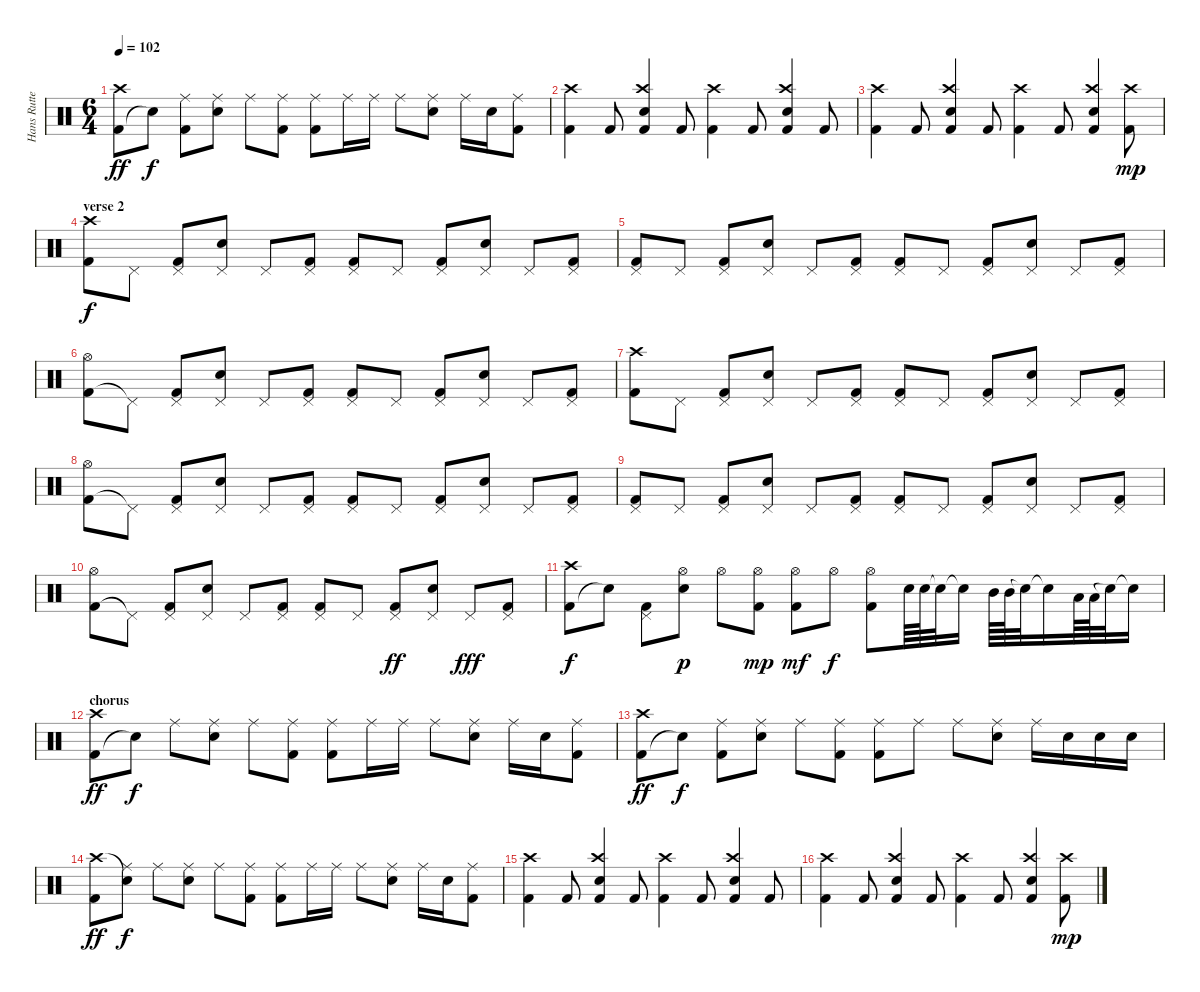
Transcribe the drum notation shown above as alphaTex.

\track ("Hans Rutten" "Hans Rutte") {instrument percussion}
\staff {score}
\articulation defaults
\ts (6 4)
\tempo 102
\clef neutral
\ks c
("Kick (hit) 2" "Crash high (hit)").8{dy ff} "Snare (hit)"{t}.8{dy f} ("Kick (hit) 2" "Ride (middle)").8 ("Ride (middle)" "Snare (hit) 2").8 "Ride (middle)".8 ("Kick (hit) 2" "Ride (middle)").8 ("Kick (hit) 2" "Ride (middle)").8 "Ride (middle)".16 "Ride (middle)".16 "Ride (middle)".8 ("Ride (middle)" "Snare (hit) 2").8 "Ride (middle)".16 "Snare (hit) 2".16 ("Kick (hit) 2" "Ride (middle)").8 |
("Kick (hit) 2" "Crash high (hit)").4 "Kick (hit) 2".8 ("Kick (hit) 2" "Crash high (hit)" "Snare (hit) 2").4 "Kick (hit) 2".8 ("Kick (hit) 2" "Crash high (hit)").4 "Kick (hit) 2".8 ("Kick (hit) 2" "Crash high (hit)" "Snare (hit) 2").4 "Kick (hit) 2".8 |
("Kick (hit) 2" "Crash high (hit)").4 "Kick (hit) 2".8 ("Kick (hit) 2" "Crash high (hit)" "Snare (hit) 2").4 "Kick (hit) 2".8 ("Kick (hit) 2" "Crash high (hit)").4 "Kick (hit) 2".8 ("Kick (hit) 2" "Crash high (hit)" "Snare (hit) 2").4 ("Kick (hit) 2" "Crash high (hit)").8{dy mp} |
\section ("" "verse 2")
("Kick (hit) 2" "Crash high (hit)").8{dy f} "Pedal Hi-Hat (hit)".8 ("Kick (hit) 2" "Pedal Hi-Hat (hit)").8 ("Pedal Hi-Hat (hit)" "Snare (hit) 2").8 "Pedal Hi-Hat (hit)".8 ("Kick (hit) 2" "Pedal Hi-Hat (hit)").8 ("Kick (hit) 2" "Pedal Hi-Hat (hit)").8 "Pedal Hi-Hat (hit)".8 ("Kick (hit) 2" "Pedal Hi-Hat (hit)").8 ("Pedal Hi-Hat (hit)" "Snare (hit) 2").8 "Pedal Hi-Hat (hit)".8 ("Kick (hit) 2" "Pedal Hi-Hat (hit)").8 |
("Kick (hit) 2" "Pedal Hi-Hat (hit)").8 "Pedal Hi-Hat (hit)".8 ("Kick (hit) 2" "Pedal Hi-Hat (hit)").8 ("Pedal Hi-Hat (hit)" "Snare (hit) 2").8 "Pedal Hi-Hat (hit)".8 ("Kick (hit) 2" "Pedal Hi-Hat (hit)").8 ("Kick (hit) 2" "Pedal Hi-Hat (hit)").8 "Pedal Hi-Hat (hit)".8 ("Kick (hit) 2" "Pedal Hi-Hat (hit)").8 ("Pedal Hi-Hat (hit)" "Snare (hit) 2").8 "Pedal Hi-Hat (hit)".8 ("Kick (hit) 2" "Pedal Hi-Hat (hit)").8 |
("Kick (hit) 2" "Hi-Hat (open)").8 "Pedal Hi-Hat (hit)"{t}.8 ("Kick (hit) 2" "Pedal Hi-Hat (hit)").8 ("Pedal Hi-Hat (hit)" "Snare (hit) 2").8 "Pedal Hi-Hat (hit)".8 ("Kick (hit) 2" "Pedal Hi-Hat (hit)").8 ("Kick (hit) 2" "Pedal Hi-Hat (hit)").8 "Pedal Hi-Hat (hit)".8 ("Kick (hit) 2" "Pedal Hi-Hat (hit)").8 ("Pedal Hi-Hat (hit)" "Snare (hit) 2").8 "Pedal Hi-Hat (hit)".8 ("Kick (hit) 2" "Pedal Hi-Hat (hit)").8 |
("Kick (hit) 2" "Crash high (hit)").8 "Pedal Hi-Hat (hit)".8 ("Kick (hit) 2" "Pedal Hi-Hat (hit)").8 ("Pedal Hi-Hat (hit)" "Snare (hit) 2").8 "Pedal Hi-Hat (hit)".8 ("Kick (hit) 2" "Pedal Hi-Hat (hit)").8 ("Kick (hit) 2" "Pedal Hi-Hat (hit)").8 "Pedal Hi-Hat (hit)".8 ("Kick (hit) 2" "Pedal Hi-Hat (hit)").8 ("Pedal Hi-Hat (hit)" "Snare (hit) 2").8 "Pedal Hi-Hat (hit)".8 ("Kick (hit) 2" "Pedal Hi-Hat (hit)").8 |
("Kick (hit) 2" "Hi-Hat (open)").8 "Pedal Hi-Hat (hit)"{t}.8 ("Kick (hit) 2" "Pedal Hi-Hat (hit)").8 ("Pedal Hi-Hat (hit)" "Snare (hit) 2").8 "Pedal Hi-Hat (hit)".8 ("Kick (hit) 2" "Pedal Hi-Hat (hit)").8 ("Kick (hit) 2" "Pedal Hi-Hat (hit)").8 "Pedal Hi-Hat (hit)".8 ("Kick (hit) 2" "Pedal Hi-Hat (hit)").8 ("Pedal Hi-Hat (hit)" "Snare (hit) 2").8 "Pedal Hi-Hat (hit)".8 ("Kick (hit) 2" "Pedal Hi-Hat (hit)").8 |
("Kick (hit) 2" "Pedal Hi-Hat (hit)").8 "Pedal Hi-Hat (hit)".8 ("Kick (hit) 2" "Pedal Hi-Hat (hit)").8 ("Pedal Hi-Hat (hit)" "Snare (hit) 2").8 "Pedal Hi-Hat (hit)".8 ("Kick (hit) 2" "Pedal Hi-Hat (hit)").8 ("Kick (hit) 2" "Pedal Hi-Hat (hit)").8 "Pedal Hi-Hat (hit)".8 ("Kick (hit) 2" "Pedal Hi-Hat (hit)").8 ("Pedal Hi-Hat (hit)" "Snare (hit) 2").8 "Pedal Hi-Hat (hit)".8 ("Kick (hit) 2" "Pedal Hi-Hat (hit)").8 |
("Kick (hit) 2" "Hi-Hat (open)").8 "Pedal Hi-Hat (hit)"{t}.8 ("Kick (hit) 2" "Pedal Hi-Hat (hit)").8 ("Pedal Hi-Hat (hit)" "Snare (hit) 2").8 "Pedal Hi-Hat (hit)".8 ("Kick (hit) 2" "Pedal Hi-Hat (hit)").8 ("Kick (hit) 2" "Pedal Hi-Hat (hit)").8 "Pedal Hi-Hat (hit)".8 ("Kick (hit) 2" "Pedal Hi-Hat (hit)").8{dy ff} ("Pedal Hi-Hat (hit)" "Snare (hit) 2").8 "Pedal Hi-Hat (hit)".8{dy fff} ("Kick (hit) 2" "Pedal Hi-Hat (hit)").8 |
("Kick (hit) 2" "Crash high (hit)").8{dy f} "Snare (hit)"{t}.8 ("Kick (hit) 2" "Pedal Hi-Hat (hit)").8 ("Hi-Hat (open)" "Snare (hit) 2").8{dy p} "Hi-Hat (open)".8 ("Kick (hit) 2" "Hi-Hat (open)").8{dy mp} ("Kick (hit) 2" "Hi-Hat (open)").8{dy mf} "Hi-Hat (open)".8{dy f} ("Kick (hit) 2" "Hi-Hat (open)").8 "Snare (hit) 2".64 "Snare (hit) 2".64 "Snare (hit)"{t}.32 "Snare (hit)"{t}.16 "Mid Tom (hit)".64 "Mid Tom (hit)".64 "Snare (hit)"{t}.32 "Snare (hit)"{t}.16 "Low Tom (hit)".64 "Low Tom (hit)".64 "Snare (hit)"{t}.32 "Snare (hit)"{t}.16 |
\section ("" "chorus")
("Kick (hit) 2" "Crash high (hit)").8{dy ff} "Snare (hit)"{t}.8{dy f} "Ride (middle)".8 ("Ride (middle)" "Snare (hit) 2").8 "Ride (middle)".8 ("Kick (hit) 2" "Ride (middle)").8 ("Kick (hit) 2" "Ride (middle)").8 "Ride (middle)".16 "Ride (middle)".16 "Ride (middle)".8 ("Ride (middle)" "Snare (hit) 2").8 "Ride (middle)".16 "Snare (hit) 2".16 ("Kick (hit) 2" "Ride (middle)").8 |
("Kick (hit) 2" "Crash high (hit)").8{dy ff} "Snare (hit)"{t}.8{dy f} ("Kick (hit) 2" "Ride (middle)").8 ("Ride (middle)" "Snare (hit) 2").8 "Ride (middle)".8 ("Kick (hit) 2" "Ride (middle)").8 ("Kick (hit) 2" "Ride (middle)").8 "Ride (middle)".8 "Ride (middle)".8 ("Ride (middle)" "Snare (hit) 2").8 "Ride (middle)".16 "Snare (hit) 2".16 "Snare (hit) 2".16 "Snare (hit) 2".16 |
("Kick (hit) 2" "Crash high (hit)").8{dy ff} ("Ride (middle)" "Snare (hit)"{t}).8{dy f} "Ride (middle)".8 ("Ride (middle)" "Snare (hit) 2").8 "Ride (middle)".8 ("Kick (hit) 2" "Ride (middle)").8 ("Kick (hit) 2" "Ride (middle)").8 "Ride (middle)".16 "Ride (middle)".16 "Ride (middle)".8 ("Ride (middle)" "Snare (hit) 2").8 "Ride (middle)".16 "Snare (hit) 2".16 ("Kick (hit) 2" "Ride (middle)").8 |
("Kick (hit) 2" "Crash high (hit)").4 "Kick (hit) 2".8 ("Kick (hit) 2" "Crash high (hit)" "Snare (hit) 2").4 "Kick (hit) 2".8 ("Kick (hit) 2" "Crash high (hit)").4 "Kick (hit) 2".8 ("Kick (hit) 2" "Crash high (hit)" "Snare (hit) 2").4 "Kick (hit) 2".8 |
("Kick (hit) 2" "Crash high (hit)").4 "Kick (hit) 2".8 ("Kick (hit) 2" "Crash high (hit)" "Snare (hit) 2").4 "Kick (hit) 2".8 ("Kick (hit) 2" "Crash high (hit)").4 "Kick (hit) 2".8 ("Kick (hit) 2" "Crash high (hit)" "Snare (hit) 2").4 ("Kick (hit) 2" "Crash high (hit)").8{dy mp}
